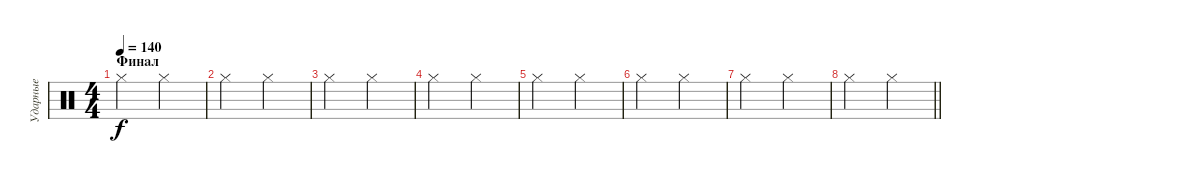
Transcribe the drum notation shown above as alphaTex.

\track ("Ударные" "Ударные") {instrument percussion}
\staff {score}
\articulation defaults
\ts (4 4)
\section ("" "Финал")
\tempo 140
\clef neutral
\ks c "Hi-Hat (closed)".2{dy f} "Hi-Hat (closed)".2
|
"Hi-Hat (closed)".2 "Hi-Hat (closed)".2 |
"Hi-Hat (closed)".2 "Hi-Hat (closed)".2 |
"Hi-Hat (closed)".2 "Hi-Hat (closed)".2 |
"Hi-Hat (closed)".2 "Hi-Hat (closed)".2 |
"Hi-Hat (closed)".2 "Hi-Hat (closed)".2 |
"Hi-Hat (closed)".2 "Hi-Hat (closed)".2 |
\barLineRight lightlight "Hi-Hat (closed)".2 "Hi-Hat (closed)".2
